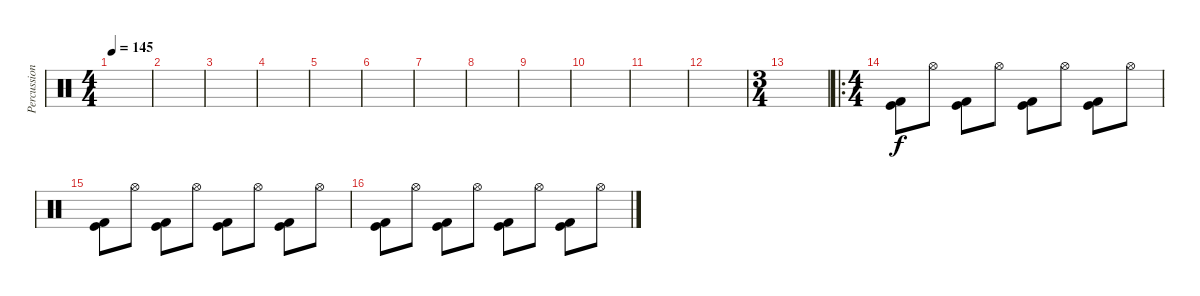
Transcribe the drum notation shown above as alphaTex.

\track ("Percussion" "Percussion") {instrument percussion}
\staff {score}
\articulation defaults
\ts (4 4)
\tempo 145
\clef neutral
\ks c
|
|
|
|
|
|
|
|
|
|
|
|
\ts (3 4)
|
\ro
\ts (4 4)
("Kick (hit) 2" "Kick (hit)").8 "Hi-Hat (open)".8 ("Kick (hit) 2" "Kick (hit)").8 "Hi-Hat (open)".8 ("Kick (hit) 2" "Kick (hit)").8 "Hi-Hat (open)".8 ("Kick (hit) 2" "Kick (hit)").8 "Hi-Hat (open)".8 |
("Kick (hit) 2" "Kick (hit)").8 "Hi-Hat (open)".8 ("Kick (hit) 2" "Kick (hit)").8 "Hi-Hat (open)".8 ("Kick (hit) 2" "Kick (hit)").8 "Hi-Hat (open)".8 ("Kick (hit) 2" "Kick (hit)").8 "Hi-Hat (open)".8 |
("Kick (hit) 2" "Kick (hit)").8 "Hi-Hat (open)".8 ("Kick (hit) 2" "Kick (hit)").8 "Hi-Hat (open)".8 ("Kick (hit) 2" "Kick (hit)").8 "Hi-Hat (open)".8 ("Kick (hit) 2" "Kick (hit)").8 "Hi-Hat (open)".8
